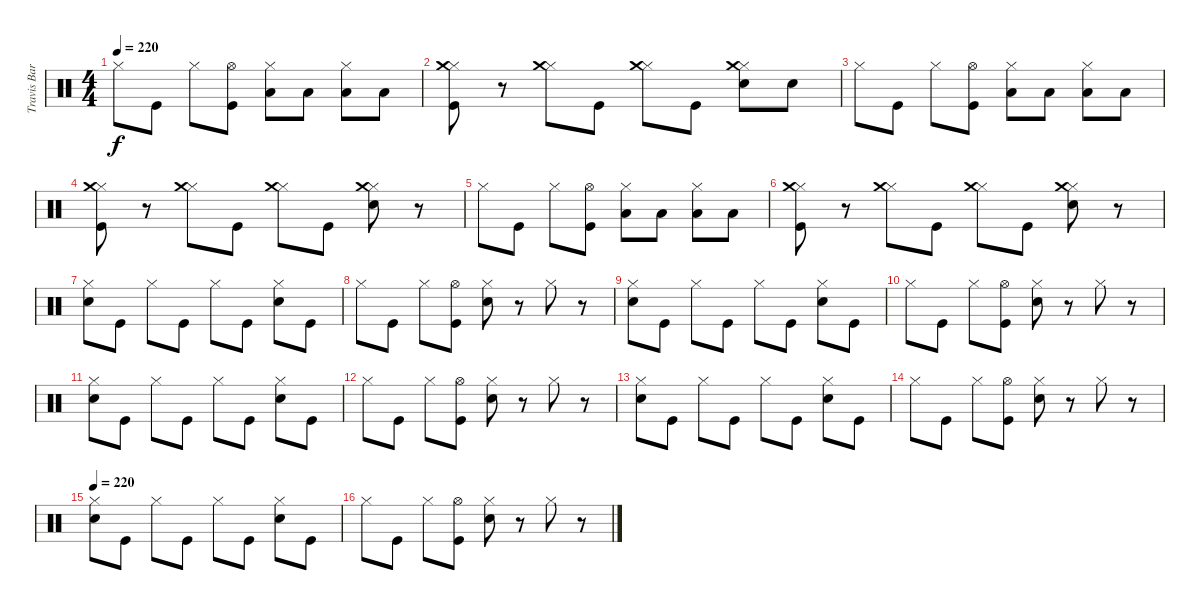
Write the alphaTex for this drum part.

\track ("Travis Barker" "Travis Bar") {instrument percussion}
\staff {score}
\articulation defaults
\ts (4 4)
\tempo 220
\clef neutral
\ks c "Hi-Hat (closed)".8{dy f} "Kick (hit)".8 "Hi-Hat (closed)".8
("Kick (hit)" "Hi-Hat (open)").8 ("Low Tom (hit)" "Hi-Hat (closed)").8 "Low Tom (hit)".8 ("Low Floor Tom (hit)" "Hi-Hat (closed)").8 "Low Floor Tom (hit)".8 |
("Kick (hit)" "Hi-Hat (closed)" "Crash medium (hit)").8 r.8 ("Hi-Hat (closed)" "Crash medium (hit)").8 "Kick (hit)".8 ("Hi-Hat (closed)" "Crash medium (hit)").8 "Kick (hit)".8 ("Electric Snare (hit)" "Hi-Hat (closed)" "Crash medium (hit)").8 "Electric Snare (hit)".8 |
"Hi-Hat (closed)".8 "Kick (hit)".8 "Hi-Hat (closed)".8 ("Kick (hit)" "Hi-Hat (open)").8 ("Low Tom (hit)" "Hi-Hat (closed)").8 "Low Tom (hit)".8 ("Low Floor Tom (hit)" "Hi-Hat (closed)").8 "Low Floor Tom (hit)".8 |
("Kick (hit)" "Hi-Hat (closed)" "Crash medium (hit)").8 r.8 ("Hi-Hat (closed)" "Crash medium (hit)").8 "Kick (hit)".8 ("Hi-Hat (closed)" "Crash medium (hit)").8 "Kick (hit)".8 ("Electric Snare (hit)" "Hi-Hat (closed)" "Crash medium (hit)").8 r.8 |
"Hi-Hat (closed)".8 "Kick (hit)".8 "Hi-Hat (closed)".8 ("Kick (hit)" "Hi-Hat (open)").8 ("Low Tom (hit)" "Hi-Hat (closed)").8 "Low Tom (hit)".8 ("Low Floor Tom (hit)" "Hi-Hat (closed)").8 "Low Floor Tom (hit)".8 |
("Kick (hit)" "Hi-Hat (closed)" "Crash medium (hit)").8 r.8 ("Hi-Hat (closed)" "Crash medium (hit)").8 "Kick (hit)".8 ("Hi-Hat (closed)" "Crash medium (hit)").8 "Kick (hit)".8 ("Electric Snare (hit)" "Hi-Hat (closed)" "Crash medium (hit)").8 r.8 |
("Electric Snare (hit)" "Hi-Hat (closed)").8 "Kick (hit)".8 "Hi-Hat (closed)".8 "Kick (hit)".8 "Hi-Hat (closed)".8 "Kick (hit)".8 ("Electric Snare (hit)" "Hi-Hat (closed)").8 "Kick (hit)".8 |
"Hi-Hat (closed)".8 "Kick (hit)".8 "Hi-Hat (closed)".8 ("Kick (hit)" "Hi-Hat (open)").8 ("Electric Snare (hit)" "Hi-Hat (closed)").8 r.8 "Hi-Hat (closed)".8 r.8 |
("Electric Snare (hit)" "Hi-Hat (closed)").8 "Kick (hit)".8 "Hi-Hat (closed)".8 "Kick (hit)".8 "Hi-Hat (closed)".8 "Kick (hit)".8 ("Electric Snare (hit)" "Hi-Hat (closed)").8 "Kick (hit)".8 |
"Hi-Hat (closed)".8 "Kick (hit)".8 "Hi-Hat (closed)".8 ("Kick (hit)" "Hi-Hat (open)").8 ("Electric Snare (hit)" "Hi-Hat (closed)").8 r.8 "Hi-Hat (closed)".8 r.8 |
("Electric Snare (hit)" "Hi-Hat (closed)").8 "Kick (hit)".8 "Hi-Hat (closed)".8 "Kick (hit)".8 "Hi-Hat (closed)".8 "Kick (hit)".8 ("Electric Snare (hit)" "Hi-Hat (closed)").8 "Kick (hit)".8 |
"Hi-Hat (closed)".8 "Kick (hit)".8 "Hi-Hat (closed)".8 ("Kick (hit)" "Hi-Hat (open)").8 ("Electric Snare (hit)" "Hi-Hat (closed)").8 r.8 "Hi-Hat (closed)".8 r.8 |
("Electric Snare (hit)" "Hi-Hat (closed)").8 "Kick (hit)".8 "Hi-Hat (closed)".8 "Kick (hit)".8 "Hi-Hat (closed)".8 "Kick (hit)".8 ("Electric Snare (hit)" "Hi-Hat (closed)").8 "Kick (hit)".8 |
"Hi-Hat (closed)".8 "Kick (hit)".8 "Hi-Hat (closed)".8 ("Kick (hit)" "Hi-Hat (open)").8 ("Electric Snare (hit)" "Hi-Hat (closed)").8 r.8 "Hi-Hat (closed)".8 r.8 |
\tempo 220
("Electric Snare (hit)" "Hi-Hat (closed)").8 "Kick (hit)".8 "Hi-Hat (closed)".8 "Kick (hit)".8 "Hi-Hat (closed)".8 "Kick (hit)".8 ("Electric Snare (hit)" "Hi-Hat (closed)").8 "Kick (hit)".8 |
"Hi-Hat (closed)".8 "Kick (hit)".8 "Hi-Hat (closed)".8 ("Kick (hit)" "Hi-Hat (open)").8 ("Electric Snare (hit)" "Hi-Hat (closed)").8 r.8 "Hi-Hat (closed)".8 r.8
